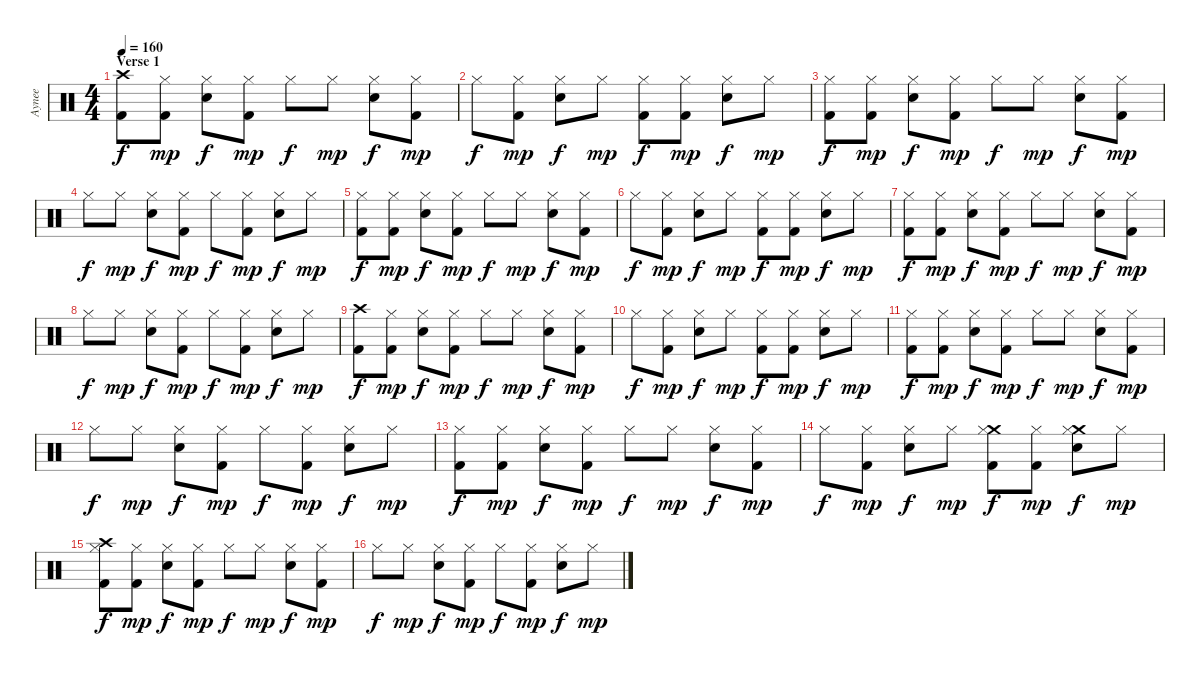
\track ("Aynee " "Aynee ") {instrument percussion}
\staff {score}
\articulation defaults
\ts (4 4)
\section ("" "Verse 1")
\tempo 160
\clef neutral
\ks c
("Crash high (hit)" "Kick (hit) 2").8{dy f} ("Hi-Hat (closed)" "Kick (hit) 2").8{dy mp} ("Hi-Hat (closed)" "Electric Snare (hit)").8{dy f} ("Hi-Hat (closed)" "Kick (hit) 2").8{dy mp} "Hi-Hat (closed)".8{dy f} "Hi-Hat (closed)".8{dy mp} ("Hi-Hat (closed)" "Electric Snare (hit)").8{dy f} ("Hi-Hat (closed)" "Kick (hit) 2").8{dy mp} |
"Hi-Hat (closed)".8{dy f} ("Hi-Hat (closed)" "Kick (hit) 2").8{dy mp} ("Hi-Hat (closed)" "Electric Snare (hit)").8{dy f} "Hi-Hat (closed)".8{dy mp} ("Hi-Hat (closed)" "Kick (hit) 2").8{dy f} ("Hi-Hat (closed)" "Kick (hit) 2").8{dy mp} ("Hi-Hat (closed)" "Electric Snare (hit)").8{dy f} "Hi-Hat (closed)".8{dy mp} |
("Hi-Hat (closed)" "Kick (hit) 2").8{dy f} ("Hi-Hat (closed)" "Kick (hit) 2").8{dy mp} ("Hi-Hat (closed)" "Electric Snare (hit)").8{dy f} ("Hi-Hat (closed)" "Kick (hit) 2").8{dy mp} "Hi-Hat (closed)".8{dy f} "Hi-Hat (closed)".8{dy mp} ("Hi-Hat (closed)" "Electric Snare (hit)").8{dy f} ("Hi-Hat (closed)" "Kick (hit) 2").8{dy mp} |
"Hi-Hat (closed)".8{dy f} "Hi-Hat (closed)".8{dy mp} ("Hi-Hat (closed)" "Electric Snare (hit)").8{dy f} ("Hi-Hat (closed)" "Kick (hit) 2").8{dy mp} "Hi-Hat (closed)".8{dy f} ("Hi-Hat (closed)" "Kick (hit) 2").8{dy mp} ("Hi-Hat (closed)" "Electric Snare (hit)").8{dy f} "Hi-Hat (closed)".8{dy mp} |
("Hi-Hat (closed)" "Kick (hit) 2").8{dy f} ("Hi-Hat (closed)" "Kick (hit) 2").8{dy mp} ("Hi-Hat (closed)" "Electric Snare (hit)").8{dy f} ("Hi-Hat (closed)" "Kick (hit) 2").8{dy mp} "Hi-Hat (closed)".8{dy f} "Hi-Hat (closed)".8{dy mp} ("Hi-Hat (closed)" "Electric Snare (hit)").8{dy f} ("Hi-Hat (closed)" "Kick (hit) 2").8{dy mp} |
"Hi-Hat (closed)".8{dy f} ("Hi-Hat (closed)" "Kick (hit) 2").8{dy mp} ("Hi-Hat (closed)" "Electric Snare (hit)").8{dy f} "Hi-Hat (closed)".8{dy mp} ("Hi-Hat (closed)" "Kick (hit) 2").8{dy f} ("Hi-Hat (closed)" "Kick (hit) 2").8{dy mp} ("Hi-Hat (closed)" "Electric Snare (hit)").8{dy f} "Hi-Hat (closed)".8{dy mp} |
("Hi-Hat (closed)" "Kick (hit) 2").8{dy f} ("Hi-Hat (closed)" "Kick (hit) 2").8{dy mp} ("Hi-Hat (closed)" "Electric Snare (hit)").8{dy f} ("Hi-Hat (closed)" "Kick (hit) 2").8{dy mp} "Hi-Hat (closed)".8{dy f} "Hi-Hat (closed)".8{dy mp} ("Hi-Hat (closed)" "Electric Snare (hit)").8{dy f} ("Hi-Hat (closed)" "Kick (hit) 2").8{dy mp} |
"Hi-Hat (closed)".8{dy f} "Hi-Hat (closed)".8{dy mp} ("Hi-Hat (closed)" "Electric Snare (hit)").8{dy f} ("Hi-Hat (closed)" "Kick (hit) 2").8{dy mp} "Hi-Hat (closed)".8{dy f} ("Hi-Hat (closed)" "Kick (hit) 2").8{dy mp} ("Hi-Hat (closed)" "Electric Snare (hit)").8{dy f} "Hi-Hat (closed)".8{dy mp} |
("Crash high (hit)" "Kick (hit) 2").8{dy f} ("Hi-Hat (closed)" "Kick (hit) 2").8{dy mp} ("Hi-Hat (closed)" "Electric Snare (hit)").8{dy f} ("Hi-Hat (closed)" "Kick (hit) 2").8{dy mp} "Hi-Hat (closed)".8{dy f} "Hi-Hat (closed)".8{dy mp} ("Hi-Hat (closed)" "Electric Snare (hit)").8{dy f} ("Hi-Hat (closed)" "Kick (hit) 2").8{dy mp} |
"Hi-Hat (closed)".8{dy f} ("Hi-Hat (closed)" "Kick (hit) 2").8{dy mp} ("Hi-Hat (closed)" "Electric Snare (hit)").8{dy f} "Hi-Hat (closed)".8{dy mp} ("Hi-Hat (closed)" "Kick (hit) 2").8{dy f} ("Hi-Hat (closed)" "Kick (hit) 2").8{dy mp} ("Hi-Hat (closed)" "Electric Snare (hit)").8{dy f} "Hi-Hat (closed)".8{dy mp} |
("Hi-Hat (closed)" "Kick (hit) 2").8{dy f} ("Hi-Hat (closed)" "Kick (hit) 2").8{dy mp} ("Hi-Hat (closed)" "Electric Snare (hit)").8{dy f} ("Hi-Hat (closed)" "Kick (hit) 2").8{dy mp} "Hi-Hat (closed)".8{dy f} "Hi-Hat (closed)".8{dy mp} ("Hi-Hat (closed)" "Electric Snare (hit)").8{dy f} ("Hi-Hat (closed)" "Kick (hit) 2").8{dy mp} |
"Hi-Hat (closed)".8{dy f} "Hi-Hat (closed)".8{dy mp} ("Hi-Hat (closed)" "Electric Snare (hit)").8{dy f} ("Hi-Hat (closed)" "Kick (hit) 2").8{dy mp} "Hi-Hat (closed)".8{dy f} ("Hi-Hat (closed)" "Kick (hit) 2").8{dy mp} ("Hi-Hat (closed)" "Electric Snare (hit)").8{dy f} "Hi-Hat (closed)".8{dy mp} |
("Hi-Hat (closed)" "Kick (hit) 2").8{dy f} ("Hi-Hat (closed)" "Kick (hit) 2").8{dy mp} ("Hi-Hat (closed)" "Electric Snare (hit)").8{dy f} ("Hi-Hat (closed)" "Kick (hit) 2").8{dy mp} "Hi-Hat (closed)".8{dy f} "Hi-Hat (closed)".8{dy mp} ("Hi-Hat (closed)" "Electric Snare (hit)").8{dy f} ("Hi-Hat (closed)" "Kick (hit) 2").8{dy mp} |
"Hi-Hat (closed)".8{dy f} ("Hi-Hat (closed)" "Kick (hit) 2").8{dy mp} ("Hi-Hat (closed)" "Electric Snare (hit)").8{dy f} "Hi-Hat (closed)".8{dy mp} ("Crash medium (hit)" "Hi-Hat (closed)" "Kick (hit) 2").8{dy f} ("Hi-Hat (closed)" "Kick (hit) 2").8{dy mp} ("Crash medium (hit)" "Hi-Hat (closed)" "Electric Snare (hit)").8{dy f} "Hi-Hat (closed)".8{dy mp} |
("Crash high (hit)" "Hi-Hat (closed)" "Kick (hit) 2").8{dy f} ("Hi-Hat (closed)" "Kick (hit) 2").8{dy mp} ("Hi-Hat (closed)" "Electric Snare (hit)").8{dy f} ("Hi-Hat (closed)" "Kick (hit) 2").8{dy mp} "Hi-Hat (closed)".8{dy f} "Hi-Hat (closed)".8{dy mp} ("Hi-Hat (closed)" "Electric Snare (hit)").8{dy f} ("Hi-Hat (closed)" "Kick (hit) 2").8{dy mp} |
"Hi-Hat (closed)".8{dy f} "Hi-Hat (closed)".8{dy mp} ("Hi-Hat (closed)" "Electric Snare (hit)").8{dy f} ("Hi-Hat (closed)" "Kick (hit) 2").8{dy mp} "Hi-Hat (closed)".8{dy f} ("Hi-Hat (closed)" "Kick (hit) 2").8{dy mp} ("Hi-Hat (closed)" "Electric Snare (hit)").8{dy f} "Hi-Hat (closed)".8{dy mp}
